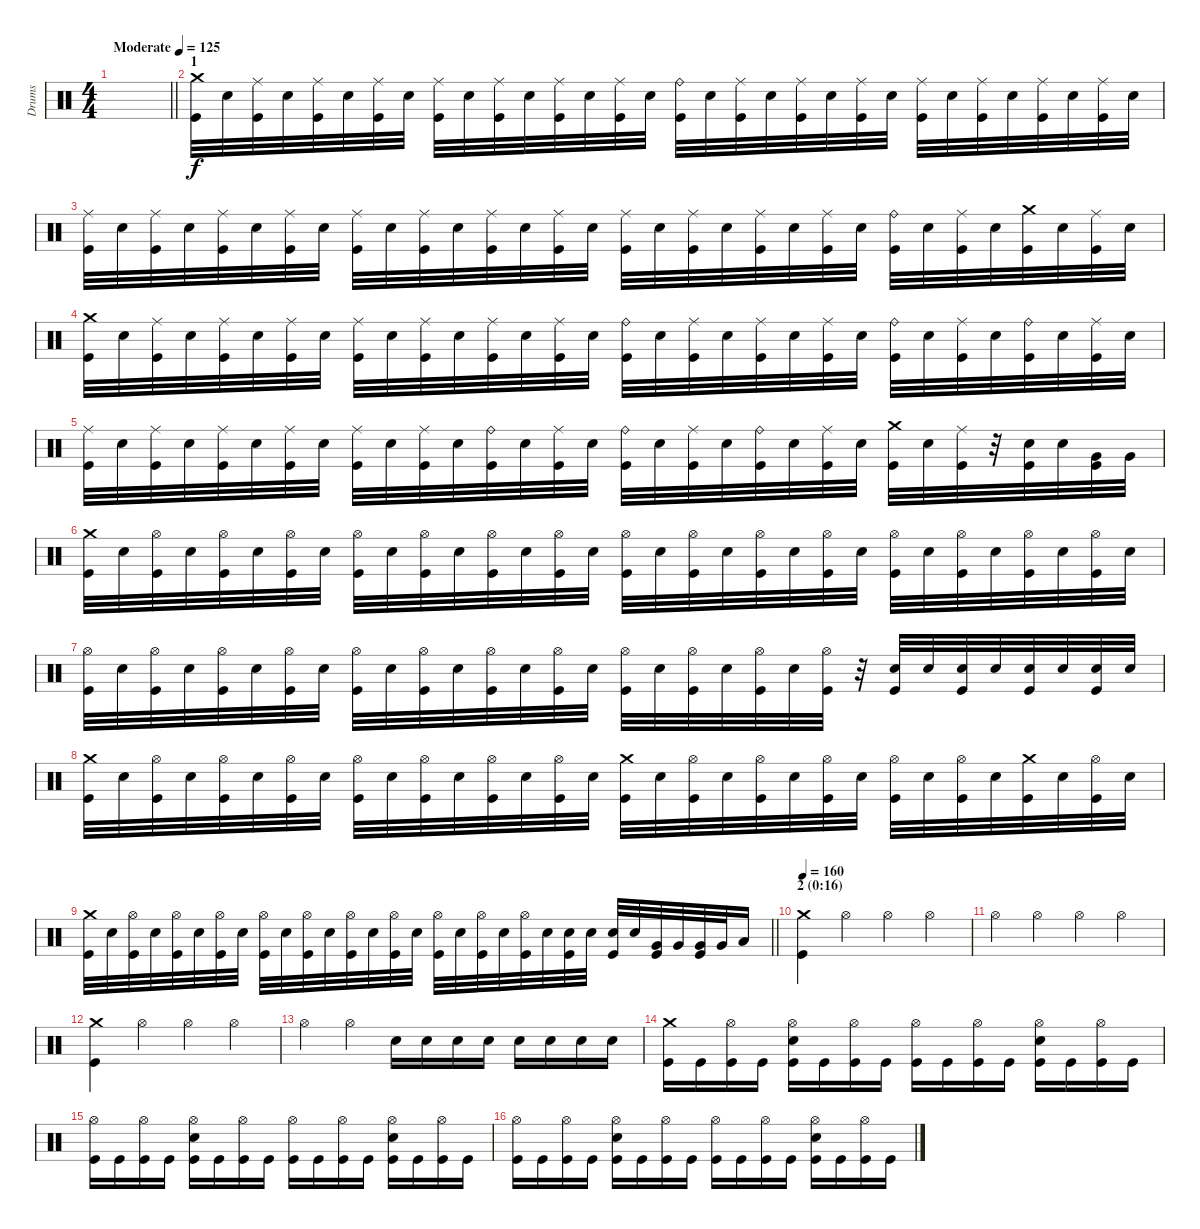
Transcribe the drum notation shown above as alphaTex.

\track ("Drums" "Drums") {instrument percussion}
\staff {score}
\articulation defaults
\ts (4 4)
\tempo (125 "Moderate")
\clef neutral
\barLineRight lightlight
\ks c
|
\section ("" "1")
("Crash medium (hit)" "Kick (hit)").32 "Electric Snare (hit)".32 ("Ride (middle)" "Kick (hit)").32 "Electric Snare (hit)".32 ("Ride (middle)" "Kick (hit)").32 "Electric Snare (hit)".32 ("Ride (middle)" "Kick (hit)").32 "Electric Snare (hit)".32 ("Ride (middle)" "Kick (hit)").32 "Electric Snare (hit)".32 ("Ride (middle)" "Kick (hit)").32 "Electric Snare (hit)".32 ("Ride (middle)" "Kick (hit)").32 "Electric Snare (hit)".32 ("Ride (middle)" "Kick (hit)").32 "Electric Snare (hit)".32 ("Ride (bell)" "Kick (hit)").32 "Electric Snare (hit)".32 ("Ride (middle)" "Kick (hit)").32 "Electric Snare (hit)".32 ("Ride (middle)" "Kick (hit)").32 "Electric Snare (hit)".32 ("Ride (middle)" "Kick (hit)").32 "Electric Snare (hit)".32 ("Ride (middle)" "Kick (hit)").32 "Electric Snare (hit)".32 ("Ride (middle)" "Kick (hit)").32 "Electric Snare (hit)".32 ("Ride (middle)" "Kick (hit)").32 "Electric Snare (hit)".32 ("Ride (middle)" "Kick (hit)").32 "Electric Snare (hit)".32 |
("Ride (middle)" "Kick (hit)").32 "Electric Snare (hit)".32 ("Ride (middle)" "Kick (hit)").32 "Electric Snare (hit)".32 ("Ride (middle)" "Kick (hit)").32 "Electric Snare (hit)".32 ("Ride (middle)" "Kick (hit)").32 "Electric Snare (hit)".32 ("Ride (middle)" "Kick (hit)").32 "Electric Snare (hit)".32 ("Ride (middle)" "Kick (hit)").32 "Electric Snare (hit)".32 ("Ride (middle)" "Kick (hit)").32 "Electric Snare (hit)".32 ("Ride (middle)" "Kick (hit)").32 "Electric Snare (hit)".32 ("Ride (middle)" "Kick (hit)").32 "Electric Snare (hit)".32 ("Ride (middle)" "Kick (hit)").32 "Electric Snare (hit)".32 ("Ride (middle)" "Kick (hit)").32 "Electric Snare (hit)".32 ("Ride (middle)" "Kick (hit)").32 "Electric Snare (hit)".32 ("Ride (bell)" "Kick (hit)").32 "Electric Snare (hit)".32 ("Ride (middle)" "Kick (hit)").32 "Electric Snare (hit)".32 ("Crash medium (hit)" "Kick (hit)").32 "Electric Snare (hit)".32 ("Ride (middle)" "Kick (hit)").32 "Electric Snare (hit)".32 |
("Crash medium (hit)" "Kick (hit)").32 "Electric Snare (hit)".32 ("Ride (middle)" "Kick (hit)").32 "Electric Snare (hit)".32 ("Ride (middle)" "Kick (hit)").32 "Electric Snare (hit)".32 ("Ride (middle)" "Kick (hit)").32 "Electric Snare (hit)".32 ("Ride (middle)" "Kick (hit)").32 "Electric Snare (hit)".32 ("Ride (middle)" "Kick (hit)").32 "Electric Snare (hit)".32 ("Ride (middle)" "Kick (hit)").32 "Electric Snare (hit)".32 ("Ride (middle)" "Kick (hit)").32 "Electric Snare (hit)".32 ("Ride (bell)" "Kick (hit)").32 "Electric Snare (hit)".32 ("Ride (middle)" "Kick (hit)").32 "Electric Snare (hit)".32 ("Ride (middle)" "Kick (hit)").32 "Electric Snare (hit)".32 ("Ride (middle)" "Kick (hit)").32 "Electric Snare (hit)".32 ("Ride (bell)" "Kick (hit)").32 "Electric Snare (hit)".32 ("Ride (middle)" "Kick (hit)").32 "Electric Snare (hit)".32 ("Ride (bell)" "Kick (hit)").32 "Electric Snare (hit)".32 ("Ride (middle)" "Kick (hit)").32 "Electric Snare (hit)".32 |
("Ride (middle)" "Kick (hit)").32 "Electric Snare (hit)".32 ("Ride (middle)" "Kick (hit)").32 "Electric Snare (hit)".32 ("Ride (middle)" "Kick (hit)").32 "Electric Snare (hit)".32 ("Ride (middle)" "Kick (hit)").32 "Electric Snare (hit)".32 ("Ride (middle)" "Kick (hit)").32 "Electric Snare (hit)".32 ("Ride (middle)" "Kick (hit)").32 "Electric Snare (hit)".32 ("Ride (bell)" "Kick (hit)").32 "Electric Snare (hit)".32 ("Ride (middle)" "Kick (hit)").32 "Electric Snare (hit)".32 ("Ride (bell)" "Kick (hit)").32 "Electric Snare (hit)".32 ("Ride (middle)" "Kick (hit)").32 "Electric Snare (hit)".32 ("Ride (bell)" "Kick (hit)").32 "Electric Snare (hit)".32 ("Ride (middle)" "Kick (hit)").32 "Electric Snare (hit)".32 ("Crash medium (hit)" "Kick (hit)").32 "Electric Snare (hit)".32 ("Ride (middle)" "Kick (hit)").32 r.32 ("Electric Snare (hit)" "Kick (hit)").32 "Electric Snare (hit)".32 ("Very Low Tom (hit)" "Kick (hit)").32 "Very Low Tom (hit)".32 |
("Crash medium (hit)" "Kick (hit)").32 "Electric Snare (hit)".32 ("Hi-Hat (open)" "Kick (hit)").32 "Electric Snare (hit)".32 ("Hi-Hat (open)" "Kick (hit)").32 "Electric Snare (hit)".32 ("Hi-Hat (open)" "Kick (hit)").32 "Electric Snare (hit)".32 ("Hi-Hat (open)" "Kick (hit)").32 "Electric Snare (hit)".32 ("Hi-Hat (open)" "Kick (hit)").32 "Electric Snare (hit)".32 ("Hi-Hat (open)" "Kick (hit)").32 "Electric Snare (hit)".32 ("Hi-Hat (open)" "Kick (hit)").32 "Electric Snare (hit)".32 ("Hi-Hat (open)" "Kick (hit)").32 "Electric Snare (hit)".32 ("Hi-Hat (open)" "Kick (hit)").32 "Electric Snare (hit)".32 ("Hi-Hat (open)" "Kick (hit)").32 "Electric Snare (hit)".32 ("Hi-Hat (open)" "Kick (hit)").32 "Electric Snare (hit)".32 ("Hi-Hat (open)" "Kick (hit)").32 "Electric Snare (hit)".32 ("Hi-Hat (open)" "Kick (hit)").32 "Electric Snare (hit)".32 ("Hi-Hat (open)" "Kick (hit)").32 "Electric Snare (hit)".32 ("Hi-Hat (open)" "Kick (hit)").32 "Electric Snare (hit)".32 |
("Hi-Hat (open)" "Kick (hit)").32 "Electric Snare (hit)".32 ("Hi-Hat (open)" "Kick (hit)").32 "Electric Snare (hit)".32 ("Hi-Hat (open)" "Kick (hit)").32 "Electric Snare (hit)".32 ("Hi-Hat (open)" "Kick (hit)").32 "Electric Snare (hit)".32 ("Hi-Hat (open)" "Kick (hit)").32 "Electric Snare (hit)".32 ("Hi-Hat (open)" "Kick (hit)").32 "Electric Snare (hit)".32 ("Hi-Hat (open)" "Kick (hit)").32 "Electric Snare (hit)".32 ("Hi-Hat (open)" "Kick (hit)").32 "Electric Snare (hit)".32 ("Hi-Hat (open)" "Kick (hit)").32 "Electric Snare (hit)".32 ("Hi-Hat (open)" "Kick (hit)").32 "Electric Snare (hit)".32 ("Hi-Hat (open)" "Kick (hit)").32 "Electric Snare (hit)".32 ("Hi-Hat (open)" "Kick (hit)").32 r.32 ("Electric Snare (hit)" "Kick (hit)").32 "Electric Snare (hit)".32 ("Electric Snare (hit)" "Kick (hit)").32 "Electric Snare (hit)".32 ("Electric Snare (hit)" "Kick (hit)").32 "Electric Snare (hit)".32 ("Electric Snare (hit)" "Kick (hit)").32 "Electric Snare (hit)".32 |
("Crash medium (hit)" "Kick (hit)").32 "Electric Snare (hit)".32 ("Hi-Hat (open)" "Kick (hit)").32 "Electric Snare (hit)".32 ("Hi-Hat (open)" "Kick (hit)").32 "Electric Snare (hit)".32 ("Hi-Hat (open)" "Kick (hit)").32 "Electric Snare (hit)".32 ("Hi-Hat (open)" "Kick (hit)").32 "Electric Snare (hit)".32 ("Hi-Hat (open)" "Kick (hit)").32 "Electric Snare (hit)".32 ("Hi-Hat (open)" "Kick (hit)").32 "Electric Snare (hit)".32 ("Hi-Hat (open)" "Kick (hit)").32 "Electric Snare (hit)".32 ("Crash medium (hit)" "Kick (hit)").32 "Electric Snare (hit)".32 ("Hi-Hat (open)" "Kick (hit)").32 "Electric Snare (hit)".32 ("Hi-Hat (open)" "Kick (hit)").32 "Electric Snare (hit)".32 ("Hi-Hat (open)" "Kick (hit)").32 "Electric Snare (hit)".32 ("Hi-Hat (open)" "Kick (hit)").32 "Electric Snare (hit)".32 ("Hi-Hat (open)" "Kick (hit)").32 "Electric Snare (hit)".32 ("Crash medium (hit)" "Kick (hit)").32 "Electric Snare (hit)".32 ("Hi-Hat (open)" "Kick (hit)").32 "Electric Snare (hit)".32 |
\barLineRight lightlight
("Crash medium (hit)" "Kick (hit)").32 "Electric Snare (hit)".32 ("Hi-Hat (open)" "Kick (hit)").32 "Electric Snare (hit)".32 ("Hi-Hat (open)" "Kick (hit)").32 "Electric Snare (hit)".32 ("Hi-Hat (open)" "Kick (hit)").32 "Electric Snare (hit)".32 ("Hi-Hat (open)" "Kick (hit)").32 "Electric Snare (hit)".32 ("Hi-Hat (open)" "Kick (hit)").32 "Electric Snare (hit)".32 ("Hi-Hat (open)" "Kick (hit)").32 "Electric Snare (hit)".32 ("Hi-Hat (open)" "Kick (hit)").32 "Electric Snare (hit)".32 ("Hi-Hat (open)" "Kick (hit)").32 "Electric Snare (hit)".32 ("Hi-Hat (open)" "Kick (hit)").32 "Electric Snare (hit)".32 ("Hi-Hat (open)" "Kick (hit)").32 "Electric Snare (hit)".32 ("Electric Snare (hit)" "Kick (hit)").32 "Electric Snare (hit)".32 ("Electric Snare (hit)" "Kick (hit)").32 "Electric Snare (hit)".32 ("Very Low Tom (hit)" "Kick (hit)").32 "Very Low Tom (hit)".32 ("Very Low Tom (hit)" "Kick (hit)").32 "Very Low Tom (hit)".32 "Low Floor Tom (hit)".16 |
\section ("" "2 (0:16)")
\tempo 160
("Crash medium (hit)" "Kick (hit)").4 "Hi-Hat (open)".4 "Hi-Hat (open)".4 "Hi-Hat (open)".4 |
"Hi-Hat (open)".4 "Hi-Hat (open)".4 "Hi-Hat (open)".4 "Hi-Hat (open)".4 |
("Crash medium (hit)" "Kick (hit)").4 "Hi-Hat (open)".4 "Hi-Hat (open)".4 "Hi-Hat (open)".4 |
"Hi-Hat (open)".4 "Hi-Hat (open)".4 "Electric Snare (hit)".16 "Electric Snare (hit)".16 "Electric Snare (hit)".16 "Electric Snare (hit)".16 "Electric Snare (hit)".16 "Electric Snare (hit)".16 "Electric Snare (hit)".16 "Electric Snare (hit)".16 |
("Crash medium (hit)" "Kick (hit)").16 "Kick (hit)".16 ("Hi-Hat (open)" "Kick (hit)").16 "Kick (hit)".16 ("Hi-Hat (open)" "Electric Snare (hit)" "Kick (hit)").16 "Kick (hit)".16 ("Hi-Hat (open)" "Kick (hit)").16 "Kick (hit)".16 ("Hi-Hat (open)" "Kick (hit)").16 "Kick (hit)".16 ("Hi-Hat (open)" "Kick (hit)").16 "Kick (hit)".16 ("Hi-Hat (open)" "Electric Snare (hit)" "Kick (hit)").16 "Kick (hit)".16 ("Hi-Hat (open)" "Kick (hit)").16 "Kick (hit)".16 |
("Hi-Hat (open)" "Kick (hit)").16 "Kick (hit)".16 ("Hi-Hat (open)" "Kick (hit)").16 "Kick (hit)".16 ("Hi-Hat (open)" "Electric Snare (hit)" "Kick (hit)").16 "Kick (hit)".16 ("Hi-Hat (open)" "Kick (hit)").16 "Kick (hit)".16 ("Hi-Hat (open)" "Kick (hit)").16 "Kick (hit)".16 ("Hi-Hat (open)" "Kick (hit)").16 "Kick (hit)".16 ("Hi-Hat (open)" "Electric Snare (hit)" "Kick (hit)").16 "Kick (hit)".16 ("Hi-Hat (open)" "Kick (hit)").16 "Kick (hit)".16 |
("Hi-Hat (open)" "Kick (hit)").16 "Kick (hit)".16 ("Hi-Hat (open)" "Kick (hit)").16 "Kick (hit)".16 ("Hi-Hat (open)" "Electric Snare (hit)" "Kick (hit)").16 "Kick (hit)".16 ("Hi-Hat (open)" "Kick (hit)").16 "Kick (hit)".16 ("Hi-Hat (open)" "Kick (hit)").16 "Kick (hit)".16 ("Hi-Hat (open)" "Kick (hit)").16 "Kick (hit)".16 ("Hi-Hat (open)" "Electric Snare (hit)" "Kick (hit)").16 "Kick (hit)".16 ("Hi-Hat (open)" "Kick (hit)").16 "Kick (hit)".16
